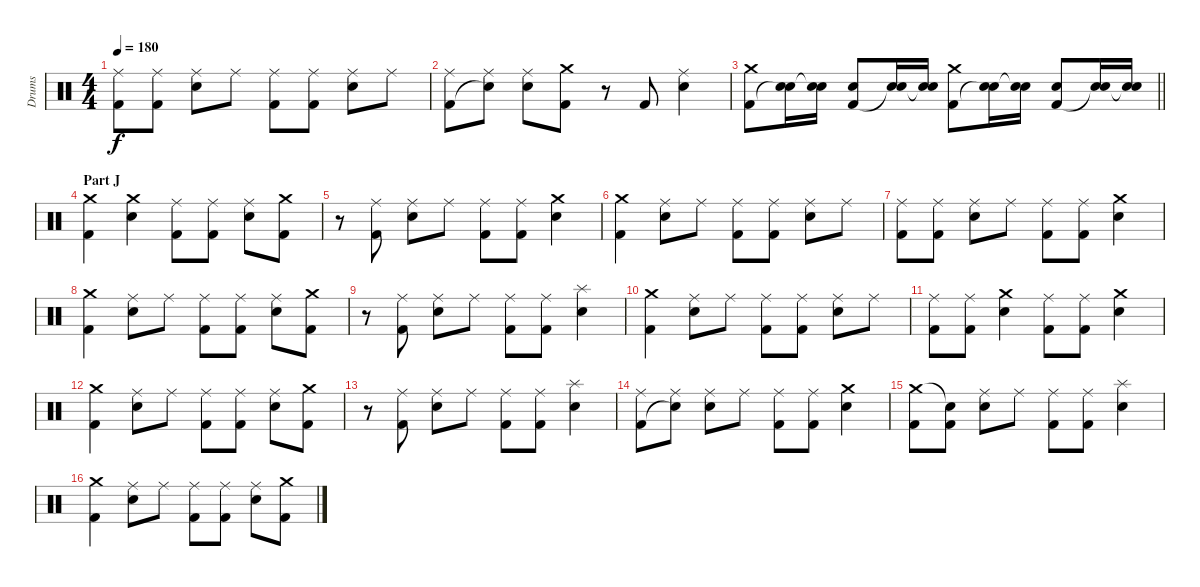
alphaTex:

\track ("Drums" "Drums") {instrument percussion}
\staff {score}
\articulation defaults
\ts (4 4)
\tempo 180
\clef neutral
\ks c
("Ride (middle)" "Kick (hit) 2").8{dy f} ("Ride (middle)" "Kick (hit) 2").8 ("Ride (middle)" "Electric Snare (hit)").8 "Ride (middle)".8 ("Ride (middle)" "Kick (hit) 2").8 ("Ride (middle)" "Kick (hit) 2").8 ("Ride (middle)" "Electric Snare (hit)").8 "Ride (middle)".8 |
("Ride (middle)" "Kick (hit) 2").8 ("Ride (middle)" "Snare (hit)"{t}).8 ("Ride (middle)" "Electric Snare (hit)").8 ("Crash medium (hit)" "Kick (hit) 2").8 r.8 "Kick (hit) 2".8 ("Ride (middle)" "Electric Snare (hit)").4 |
\barLineRight lightlight
("Crash medium (hit)" "Kick (hit) 2").8 ("Electric Snare (hit)" "Snare (hit)"{t}).16 ("Electric Snare (hit)" "Snare (hit)"{t}).16 ("Electric Snare (hit)" "Kick (hit) 2").8 ("Electric Snare (hit)" "Snare (hit)"{t}).16 ("Electric Snare (hit)" "Snare (hit)"{t}).16 ("Crash medium (hit)" "Kick (hit) 2").8 ("Electric Snare (hit)" "Snare (hit)"{t}).16 ("Electric Snare (hit)" "Snare (hit)"{t}).16 ("Electric Snare (hit)" "Kick (hit) 2").8 ("Electric Snare (hit)" "Snare (hit)"{t}).16 ("Electric Snare (hit)" "Snare (hit)"{t}).16 |
\section ("" "Part J")
("Crash medium (hit)" "Kick (hit) 2").4 ("Crash medium (hit)" "Electric Snare (hit)").4 ("Ride (middle)" "Kick (hit) 2").8 ("Ride (middle)" "Kick (hit) 2").8 ("Ride (middle)" "Electric Snare (hit)").8 ("Crash medium (hit)" "Kick (hit) 2").8 |
r.8 ("Ride (middle)" "Kick (hit) 2").8 ("Ride (middle)" "Electric Snare (hit)").8 "Ride (middle)".8 ("Ride (middle)" "Kick (hit) 2").8 ("Ride (middle)" "Kick (hit) 2").8 ("Crash medium (hit)" "Electric Snare (hit)").4 |
("Crash medium (hit)" "Kick (hit) 2").4 ("Ride (middle)" "Electric Snare (hit)").8 "Ride (middle)".8 ("Ride (middle)" "Kick (hit) 2").8 ("Ride (middle)" "Kick (hit) 2").8 ("Ride (middle)" "Electric Snare (hit)").8 "Ride (middle)".8 |
("Ride (middle)" "Kick (hit) 2").8 ("Ride (middle)" "Kick (hit) 2").8 ("Ride (middle)" "Electric Snare (hit)").8 "Ride (middle)".8 ("Ride (middle)" "Kick (hit) 2").8 ("Ride (middle)" "Kick (hit) 2").8 ("Crash medium (hit)" "Electric Snare (hit)").4 |
("Crash medium (hit)" "Kick (hit) 2").4 ("Ride (middle)" "Electric Snare (hit)").8 "Ride (middle)".8 ("Ride (middle)" "Kick (hit) 2").8 ("Ride (middle)" "Kick (hit) 2").8 ("Ride (middle)" "Electric Snare (hit)").8 ("Crash medium (hit)" "Kick (hit) 2").8 |
r.8 ("Ride (middle)" "Kick (hit) 2").8 ("Ride (middle)" "Electric Snare (hit)").8 "Ride (middle)".8 ("Ride (middle)" "Kick (hit) 2").8 ("Ride (middle)" "Kick (hit) 2").8 ("Splash (hit)" "Electric Snare (hit)").4 |
("Crash medium (hit)" "Kick (hit) 2").4 ("Ride (middle)" "Electric Snare (hit)").8 "Ride (middle)".8 ("Ride (middle)" "Kick (hit) 2").8 ("Ride (middle)" "Kick (hit) 2").8 ("Ride (middle)" "Electric Snare (hit)").8 "Ride (middle)".8 |
("Ride (middle)" "Kick (hit) 2").8 ("Ride (middle)" "Kick (hit) 2").8 ("Crash medium (hit)" "Electric Snare (hit)").4 ("Ride (middle)" "Kick (hit) 2").8 ("Ride (middle)" "Kick (hit) 2").8 ("Crash medium (hit)" "Electric Snare (hit)").4 |
("Crash medium (hit)" "Kick (hit) 2").4 ("Ride (middle)" "Electric Snare (hit)").8 "Ride (middle)".8 ("Ride (middle)" "Kick (hit) 2").8 ("Ride (middle)" "Kick (hit) 2").8 ("Ride (middle)" "Electric Snare (hit)").8 ("Crash medium (hit)" "Kick (hit) 2").8 |
r.8 ("Ride (middle)" "Kick (hit) 2").8 ("Ride (middle)" "Electric Snare (hit)").8 "Ride (middle)".8 ("Ride (middle)" "Kick (hit) 2").8 ("Ride (middle)" "Kick (hit) 2").8 ("Splash (hit)" "Electric Snare (hit)").4 |
("Ride (middle)" "Kick (hit) 2").8 ("Ride (middle)" "Snare (hit)"{t}).8 ("Ride (middle)" "Electric Snare (hit)").8 "Ride (middle)".8 ("Ride (middle)" "Kick (hit) 2").8 ("Ride (middle)" "Kick (hit) 2").8 ("Crash medium (hit)" "Electric Snare (hit)").4 |
("Crash medium (hit)" "Kick (hit) 2").8 ("Snare (hit)"{t} "Kick (hit) 2").8 ("Ride (middle)" "Electric Snare (hit)").8 "Ride (middle)".8 ("Ride (middle)" "Kick (hit) 2").8 ("Ride (middle)" "Kick (hit) 2").8 ("Splash (hit)" "Electric Snare (hit)").4 |
("Crash medium (hit)" "Kick (hit) 2").4 ("Ride (middle)" "Electric Snare (hit)").8 "Ride (middle)".8 ("Ride (middle)" "Kick (hit) 2").8 ("Ride (middle)" "Kick (hit) 2").8 ("Ride (middle)" "Electric Snare (hit)").8 ("Crash medium (hit)" "Kick (hit) 2").8
